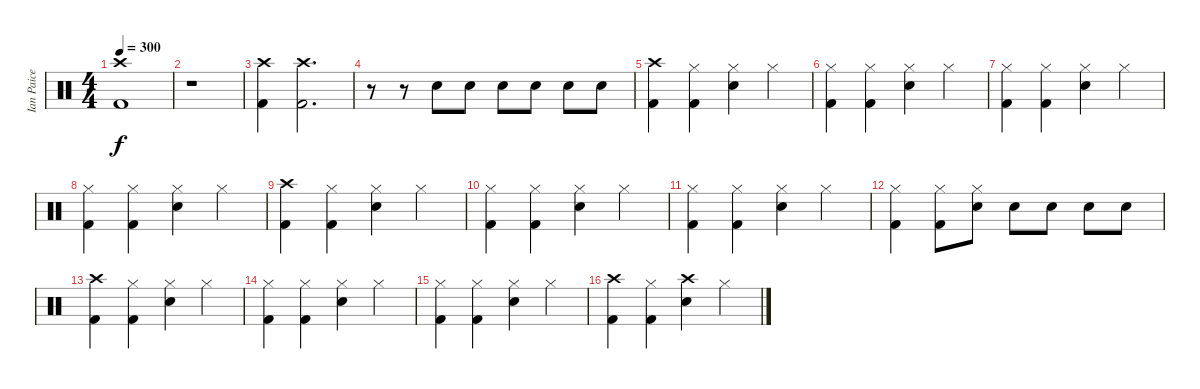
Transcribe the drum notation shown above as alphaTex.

\track ("Ian Paice" "Ian Paice") {instrument percussion}
\staff {score}
\articulation defaults
\ts (4 4)
\tempo 300
\clef neutral
\ks c
("Crash high (hit)" "Kick (hit) 2").1{dy f} |
r.1 |
("Crash high (hit)" "Kick (hit) 2").4 ("Crash high (hit)" "Kick (hit) 2").2{d} |
r.8 r.8 "Electric Snare (hit)".8 "Electric Snare (hit)".8 "Electric Snare (hit)".8 "Electric Snare (hit)".8 "Electric Snare (hit)".8 "Electric Snare (hit)".8 |
("Crash high (hit)" "Kick (hit) 2").4 ("Hi-Hat (closed)" "Kick (hit) 2").4 ("Hi-Hat (closed)" "Electric Snare (hit)").4 "Hi-Hat (closed)".4 |
("Hi-Hat (closed)" "Kick (hit) 2").4 ("Hi-Hat (closed)" "Kick (hit) 2").4 ("Hi-Hat (closed)" "Electric Snare (hit)").4 "Hi-Hat (closed)".4 |
("Hi-Hat (closed)" "Kick (hit) 2").4 ("Hi-Hat (closed)" "Kick (hit) 2").4 ("Hi-Hat (closed)" "Electric Snare (hit)").4 "Hi-Hat (closed)".4 |
("Hi-Hat (closed)" "Kick (hit) 2").4 ("Hi-Hat (closed)" "Kick (hit) 2").4 ("Hi-Hat (closed)" "Electric Snare (hit)").4 "Hi-Hat (closed)".4 |
("Crash high (hit)" "Kick (hit) 2").4 ("Hi-Hat (closed)" "Kick (hit) 2").4 ("Hi-Hat (closed)" "Electric Snare (hit)").4 "Hi-Hat (closed)".4 |
("Hi-Hat (closed)" "Kick (hit) 2").4 ("Hi-Hat (closed)" "Kick (hit) 2").4 ("Hi-Hat (closed)" "Electric Snare (hit)").4 "Hi-Hat (closed)".4 |
("Hi-Hat (closed)" "Kick (hit) 2").4 ("Hi-Hat (closed)" "Kick (hit) 2").4 ("Hi-Hat (closed)" "Electric Snare (hit)").4 "Hi-Hat (closed)".4 |
("Hi-Hat (closed)" "Kick (hit) 2").4 ("Hi-Hat (closed)" "Kick (hit) 2").8 ("Hi-Hat (closed)" "Electric Snare (hit)").8 "Electric Snare (hit)".8 "Electric Snare (hit)".8 "Electric Snare (hit)".8 "Electric Snare (hit)".8 |
("Crash high (hit)" "Kick (hit) 2").4 ("Hi-Hat (closed)" "Kick (hit) 2").4 ("Hi-Hat (closed)" "Electric Snare (hit)").4 "Hi-Hat (closed)".4 |
("Hi-Hat (closed)" "Kick (hit) 2").4 ("Hi-Hat (closed)" "Kick (hit) 2").4 ("Hi-Hat (closed)" "Electric Snare (hit)").4 "Hi-Hat (closed)".4 |
("Hi-Hat (closed)" "Kick (hit) 2").4 ("Hi-Hat (closed)" "Kick (hit) 2").4 ("Hi-Hat (closed)" "Electric Snare (hit)").4 "Hi-Hat (closed)".4 |
("Crash high (hit)" "Kick (hit) 2").4 ("Hi-Hat (closed)" "Kick (hit) 2").4 ("Crash high (hit)" "Electric Snare (hit)").4 "Hi-Hat (closed)".4
